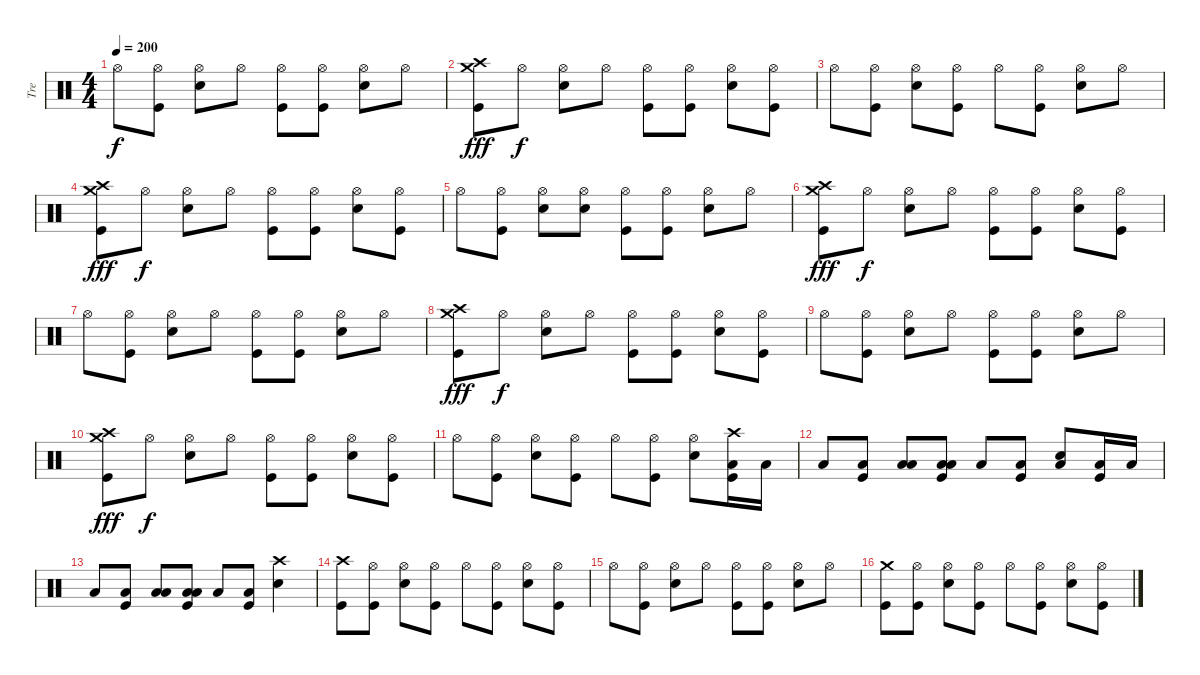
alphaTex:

\track ("Tre" "Tre") {instrument percussion}
\staff {score}
\articulation defaults
\ts (4 4)
\tempo 200
\clef neutral
\ks c "Hi-Hat (open)".8{dy f}
("Hi-Hat (open)" "Kick (hit)").8 ("Hi-Hat (open)" "Snare (hit) 2").8 "Hi-Hat (open)".8 ("Hi-Hat (open)" "Kick (hit)").8 ("Hi-Hat (open)" "Kick (hit)").8 ("Hi-Hat (open)" "Snare (hit) 2").8 "Hi-Hat (open)".8 |
("Crash medium (hit)" "Kick (hit)" "Crash high (hit)").8{dy fff} "Hi-Hat (open)".8{dy f} ("Hi-Hat (open)" "Snare (hit) 2").8 "Hi-Hat (open)".8 ("Hi-Hat (open)" "Kick (hit)").8 ("Hi-Hat (open)" "Kick (hit)").8 ("Hi-Hat (open)" "Snare (hit) 2").8 ("Hi-Hat (open)" "Kick (hit)").8 |
"Hi-Hat (open)".8 ("Hi-Hat (open)" "Kick (hit)").8 ("Hi-Hat (open)" "Snare (hit) 2").8 ("Hi-Hat (open)" "Kick (hit)").8 "Hi-Hat (open)".8 ("Hi-Hat (open)" "Kick (hit)").8 ("Hi-Hat (open)" "Snare (hit) 2").8 "Hi-Hat (open)".8 |
("Crash medium (hit)" "Kick (hit)" "Crash high (hit)").8{dy fff} "Hi-Hat (open)".8{dy f} ("Hi-Hat (open)" "Snare (hit) 2").8 "Hi-Hat (open)".8 ("Hi-Hat (open)" "Kick (hit)").8 ("Hi-Hat (open)" "Kick (hit)").8 ("Hi-Hat (open)" "Snare (hit) 2").8 ("Hi-Hat (open)" "Kick (hit)").8 |
"Hi-Hat (open)".8 ("Hi-Hat (open)" "Kick (hit)").8 ("Hi-Hat (open)" "Snare (hit) 2").8 ("Hi-Hat (open)" "Snare (hit) 2").8 ("Hi-Hat (open)" "Kick (hit)").8 ("Hi-Hat (open)" "Kick (hit)").8 ("Hi-Hat (open)" "Snare (hit) 2").8 "Hi-Hat (open)".8 |
("Crash medium (hit)" "Kick (hit)" "Crash high (hit)").8{dy fff} "Hi-Hat (open)".8{dy f} ("Hi-Hat (open)" "Snare (hit) 2").8 "Hi-Hat (open)".8 ("Hi-Hat (open)" "Kick (hit)").8 ("Hi-Hat (open)" "Kick (hit)").8 ("Hi-Hat (open)" "Snare (hit) 2").8 ("Hi-Hat (open)" "Kick (hit)").8 |
"Hi-Hat (open)".8 ("Hi-Hat (open)" "Kick (hit)").8 ("Hi-Hat (open)" "Snare (hit) 2").8 "Hi-Hat (open)".8 ("Hi-Hat (open)" "Kick (hit)").8 ("Hi-Hat (open)" "Kick (hit)").8 ("Hi-Hat (open)" "Snare (hit) 2").8 "Hi-Hat (open)".8 |
("Crash medium (hit)" "Kick (hit)" "Crash high (hit)").8{dy fff} "Hi-Hat (open)".8{dy f} ("Hi-Hat (open)" "Snare (hit) 2").8 "Hi-Hat (open)".8 ("Hi-Hat (open)" "Kick (hit)").8 ("Hi-Hat (open)" "Kick (hit)").8 ("Hi-Hat (open)" "Snare (hit) 2").8 ("Hi-Hat (open)" "Kick (hit)").8 |
"Hi-Hat (open)".8 ("Hi-Hat (open)" "Kick (hit)").8 ("Hi-Hat (open)" "Snare (hit) 2").8 "Hi-Hat (open)".8 ("Hi-Hat (open)" "Kick (hit)").8 ("Hi-Hat (open)" "Kick (hit)").8 ("Hi-Hat (open)" "Snare (hit) 2").8 "Hi-Hat (open)".8 |
("Crash medium (hit)" "Kick (hit)" "Crash high (hit)").8{dy fff} "Hi-Hat (open)".8{dy f} ("Hi-Hat (open)" "Snare (hit) 2").8 "Hi-Hat (open)".8 ("Hi-Hat (open)" "Kick (hit)").8 ("Hi-Hat (open)" "Kick (hit)").8 ("Hi-Hat (open)" "Snare (hit) 2").8 ("Hi-Hat (open)" "Kick (hit)").8 |
"Hi-Hat (open)".8 ("Hi-Hat (open)" "Kick (hit)").8 ("Hi-Hat (open)" "Snare (hit) 2").8 ("Hi-Hat (open)" "Kick (hit)").8 "Hi-Hat (open)".8 ("Hi-Hat (open)" "Kick (hit)").8 ("Hi-Hat (open)" "Snare (hit) 2").8 ("Crash high (hit)" "Low Floor Tom (hit)" "Kick (hit)").16 "Low Floor Tom (hit)".16 |
"Low Floor Tom (hit)".8 ("Low Floor Tom (hit)" "Kick (hit)").8 ("Low Tom (hit)" "Low Floor Tom (hit)").8 ("Low Tom (hit)" "Low Floor Tom (hit)" "Kick (hit)").8 "Low Floor Tom (hit)".8 ("Low Floor Tom (hit)" "Kick (hit)").8 ("Low Floor Tom (hit)" "Snare (hit) 2").8 ("Low Floor Tom (hit)" "Kick (hit)").16 "Low Floor Tom (hit)".16 |
"Low Floor Tom (hit)".8 ("Low Floor Tom (hit)" "Kick (hit)").8 ("Low Tom (hit)" "Low Floor Tom (hit)").8 ("Low Tom (hit)" "Low Floor Tom (hit)" "Kick (hit)").8 "Low Floor Tom (hit)".8 ("Low Floor Tom (hit)" "Kick (hit)").8 ("Snare (hit) 2" "Crash high (hit)").4 |
("Crash high (hit)" "Kick (hit)").8 ("Hi-Hat (open)" "Kick (hit)").8 ("Hi-Hat (open)" "Snare (hit) 2").8 ("Hi-Hat (open)" "Kick (hit)").8 "Hi-Hat (open)".8 ("Hi-Hat (open)" "Kick (hit)").8 ("Hi-Hat (open)" "Snare (hit) 2").8 ("Hi-Hat (open)" "Kick (hit)").8 |
"Hi-Hat (open)".8 ("Hi-Hat (open)" "Kick (hit)").8 ("Hi-Hat (open)" "Snare (hit) 2").8 "Hi-Hat (open)".8 ("Hi-Hat (open)" "Kick (hit)").8 ("Hi-Hat (open)" "Kick (hit)").8 ("Hi-Hat (open)" "Snare (hit) 2").8 "Hi-Hat (open)".8 |
("Crash medium (hit)" "Kick (hit)").8 ("Hi-Hat (open)" "Kick (hit)").8 ("Hi-Hat (open)" "Snare (hit) 2").8 ("Hi-Hat (open)" "Kick (hit)").8 "Hi-Hat (open)".8 ("Hi-Hat (open)" "Kick (hit)").8 ("Hi-Hat (open)" "Snare (hit) 2").8 ("Hi-Hat (open)" "Kick (hit)").8
